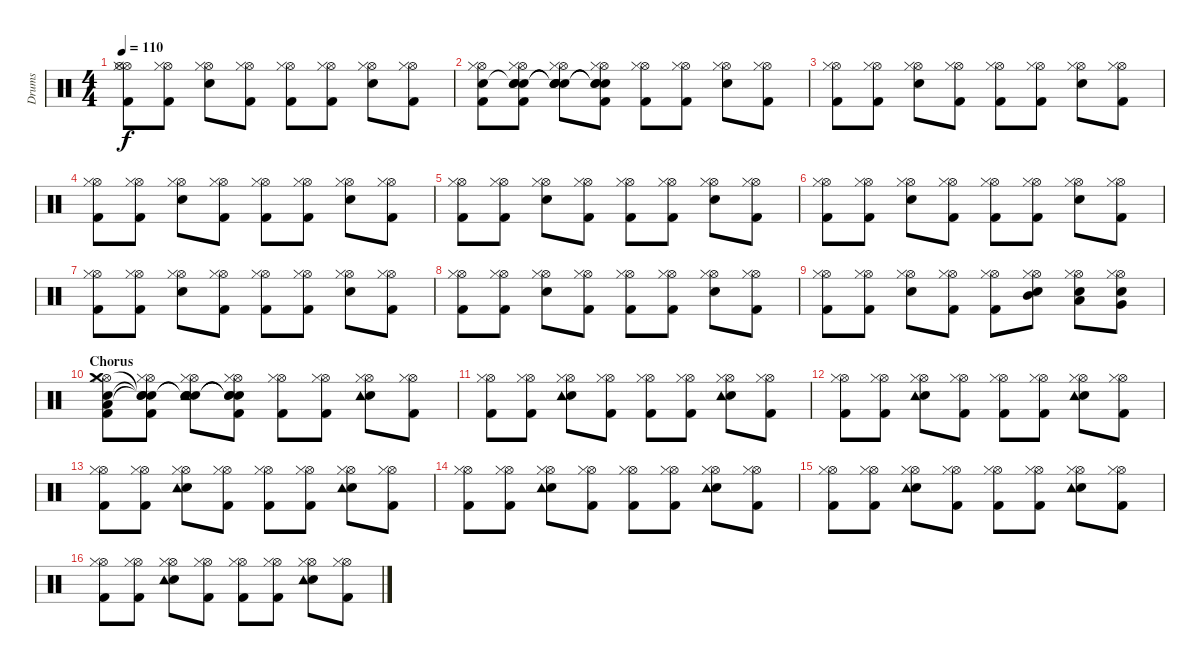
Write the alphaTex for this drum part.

\track ("Drums" "Drums") {instrument percussion}
\staff {score}
\articulation defaults
\ts (4 4)
\tempo 110
\clef neutral
\ks c
("Hi-Hat (open)" "Hi-Hat (closed)" "Kick (hit) 2" "Hi-Hat (open)").8{dy f} ("Hi-Hat (open)" "Hi-Hat (closed)" "Kick (hit) 2").8 ("Hi-Hat (open)" "Hi-Hat (closed)" "Snare (hit) 2").8 ("Hi-Hat (open)" "Hi-Hat (closed)" "Kick (hit) 2").8 ("Hi-Hat (open)" "Hi-Hat (closed)" "Kick (hit) 2").8 ("Hi-Hat (open)" "Hi-Hat (closed)" "Kick (hit) 2").8 ("Hi-Hat (open)" "Hi-Hat (closed)" "Snare (hit) 2").8 ("Hi-Hat (open)" "Hi-Hat (closed)" "Kick (hit) 2").8 |
("Hi-Hat (open)" "Hi-Hat (closed)" "Electric Snare (hit)" "Kick (hit) 2").8 ("Hi-Hat (open)" "Hi-Hat (closed)" "Snare (hit)"{t} "Kick (hit) 2" "Snare (hit)" "Snare (hit)").8 ("Hi-Hat (open)" "Hi-Hat (closed)" "Snare (hit)"{t} "Snare (hit) 2" "Snare (hit)"{t} "Snare (hit)"{t}).8 ("Hi-Hat (open)" "Hi-Hat (closed)" "Snare (hit)"{t} "Kick (hit) 2" "Snare (hit)"{t} "Snare (hit)"{t}).8 ("Hi-Hat (open)" "Hi-Hat (closed)" "Kick (hit) 2").8 ("Hi-Hat (open)" "Hi-Hat (closed)" "Kick (hit) 2").8 ("Hi-Hat (open)" "Hi-Hat (closed)" "Snare (hit) 2").8 ("Hi-Hat (open)" "Hi-Hat (closed)" "Kick (hit) 2").8 |
("Hi-Hat (open)" "Hi-Hat (closed)" "Kick (hit) 2").8 ("Hi-Hat (open)" "Hi-Hat (closed)" "Kick (hit) 2").8 ("Hi-Hat (open)" "Hi-Hat (closed)" "Snare (hit) 2").8 ("Hi-Hat (open)" "Hi-Hat (closed)" "Kick (hit) 2").8 ("Hi-Hat (open)" "Hi-Hat (closed)" "Kick (hit) 2").8 ("Hi-Hat (open)" "Hi-Hat (closed)" "Kick (hit) 2").8 ("Hi-Hat (open)" "Hi-Hat (closed)" "Snare (hit) 2").8 ("Hi-Hat (open)" "Hi-Hat (closed)" "Kick (hit) 2").8 |
("Hi-Hat (open)" "Hi-Hat (closed)" "Kick (hit) 2").8 ("Hi-Hat (open)" "Hi-Hat (closed)" "Kick (hit) 2").8 ("Hi-Hat (open)" "Hi-Hat (closed)" "Snare (hit) 2").8 ("Hi-Hat (open)" "Hi-Hat (closed)" "Kick (hit) 2").8 ("Hi-Hat (open)" "Hi-Hat (closed)" "Kick (hit) 2").8 ("Hi-Hat (open)" "Hi-Hat (closed)" "Kick (hit) 2").8 ("Hi-Hat (open)" "Hi-Hat (closed)" "Snare (hit) 2").8 ("Hi-Hat (open)" "Hi-Hat (closed)" "Kick (hit) 2").8 |
("Hi-Hat (open)" "Hi-Hat (closed)" "Kick (hit) 2").8 ("Hi-Hat (open)" "Hi-Hat (closed)" "Kick (hit) 2").8 ("Hi-Hat (open)" "Hi-Hat (closed)" "Snare (hit) 2").8 ("Hi-Hat (open)" "Hi-Hat (closed)" "Kick (hit) 2").8 ("Hi-Hat (open)" "Hi-Hat (closed)" "Kick (hit) 2").8 ("Hi-Hat (open)" "Hi-Hat (closed)" "Kick (hit) 2").8 ("Hi-Hat (open)" "Hi-Hat (closed)" "Snare (hit) 2").8 ("Hi-Hat (open)" "Hi-Hat (closed)" "Kick (hit) 2").8 |
("Hi-Hat (open)" "Hi-Hat (closed)" "Kick (hit) 2").8 ("Hi-Hat (open)" "Hi-Hat (closed)" "Kick (hit) 2").8 ("Hi-Hat (open)" "Hi-Hat (closed)" "Snare (hit) 2").8 ("Hi-Hat (open)" "Hi-Hat (closed)" "Kick (hit) 2").8 ("Hi-Hat (open)" "Hi-Hat (closed)" "Kick (hit) 2").8 ("Hi-Hat (open)" "Hi-Hat (closed)" "Kick (hit) 2").8 ("Hi-Hat (open)" "Hi-Hat (closed)" "Snare (hit) 2").8 ("Hi-Hat (open)" "Hi-Hat (closed)" "Kick (hit) 2").8 |
("Hi-Hat (open)" "Hi-Hat (closed)" "Kick (hit) 2").8 ("Hi-Hat (open)" "Hi-Hat (closed)" "Kick (hit) 2").8 ("Hi-Hat (open)" "Hi-Hat (closed)" "Snare (hit) 2").8 ("Hi-Hat (open)" "Hi-Hat (closed)" "Kick (hit) 2").8 ("Hi-Hat (open)" "Hi-Hat (closed)" "Kick (hit) 2").8 ("Hi-Hat (open)" "Hi-Hat (closed)" "Kick (hit) 2").8 ("Hi-Hat (open)" "Hi-Hat (closed)" "Snare (hit) 2").8 ("Hi-Hat (open)" "Hi-Hat (closed)" "Kick (hit) 2").8 |
("Hi-Hat (open)" "Hi-Hat (closed)" "Kick (hit) 2").8 ("Hi-Hat (open)" "Hi-Hat (closed)" "Kick (hit) 2").8 ("Hi-Hat (open)" "Hi-Hat (closed)" "Snare (hit) 2").8 ("Hi-Hat (open)" "Hi-Hat (closed)" "Kick (hit) 2").8 ("Hi-Hat (open)" "Hi-Hat (closed)" "Kick (hit) 2").8 ("Hi-Hat (open)" "Hi-Hat (closed)" "Kick (hit) 2").8 ("Hi-Hat (open)" "Hi-Hat (closed)" "Snare (hit) 2").8 ("Hi-Hat (open)" "Hi-Hat (closed)" "Kick (hit) 2").8 |
("Hi-Hat (open)" "Hi-Hat (closed)" "Kick (hit) 2").8 ("Hi-Hat (open)" "Hi-Hat (closed)" "Kick (hit) 2").8 ("Hi-Hat (open)" "Hi-Hat (closed)" "Snare (hit) 2").8 ("Hi-Hat (open)" "Hi-Hat (closed)" "Kick (hit) 2").8 ("Hi-Hat (open)" "Hi-Hat (closed)" "Kick (hit) 2").8 ("Hi-Hat (open)" "Hi-Hat (closed)" "Snare (hit) 2" "Mid Tom (hit)").8 ("Hi-Hat (open)" "Hi-Hat (closed)" "Snare (hit) 2" "Low Tom (hit)").8 ("Hi-Hat (open)" "Hi-Hat (closed)" "Snare (hit) 2" "Very Low Tom (hit)").8 |
\section ("" "Chorus")
("Hi-Hat (open)" "Hi-Hat (closed)" "Electric Snare (hit)" "Kick (hit) 2" "Low Floor Tom (hit)" "Crash medium (hit)").8 ("Hi-Hat (open)" "Hi-Hat (closed)" "Snare (hit)"{t} "Kick (hit) 2" "Snare (hit)"{t} "Snare (hit)"{t}).8 ("Hi-Hat (open)" "Hi-Hat (closed)" "Snare (hit)"{t} "Snare (hit) 2" "Snare (hit)"{t} "Tambourine (hit)").8 ("Hi-Hat (open)" "Hi-Hat (closed)" "Snare (hit)"{t} "Kick (hit) 2" "Snare (hit)"{t} "Snare (hit)"{t}).8 ("Hi-Hat (open)" "Hi-Hat (closed)" "Kick (hit) 2").8 ("Hi-Hat (open)" "Hi-Hat (closed)" "Kick (hit) 2").8 ("Hi-Hat (open)" "Hi-Hat (closed)" "Snare (hit) 2" "Tambourine (hit)").8 ("Hi-Hat (open)" "Hi-Hat (closed)" "Kick (hit) 2").8 |
("Hi-Hat (open)" "Hi-Hat (closed)" "Kick (hit) 2").8 ("Hi-Hat (open)" "Hi-Hat (closed)" "Kick (hit) 2").8 ("Hi-Hat (open)" "Hi-Hat (closed)" "Snare (hit) 2" "Tambourine (hit)").8 ("Hi-Hat (open)" "Hi-Hat (closed)" "Kick (hit) 2").8 ("Hi-Hat (open)" "Hi-Hat (closed)" "Kick (hit) 2").8 ("Hi-Hat (open)" "Hi-Hat (closed)" "Kick (hit) 2").8 ("Hi-Hat (open)" "Hi-Hat (closed)" "Snare (hit) 2" "Tambourine (hit)").8 ("Hi-Hat (open)" "Hi-Hat (closed)" "Kick (hit) 2").8 |
("Hi-Hat (open)" "Hi-Hat (closed)" "Kick (hit) 2").8 ("Hi-Hat (open)" "Hi-Hat (closed)" "Kick (hit) 2").8 ("Hi-Hat (open)" "Hi-Hat (closed)" "Snare (hit) 2" "Tambourine (hit)").8 ("Hi-Hat (open)" "Hi-Hat (closed)" "Kick (hit) 2").8 ("Hi-Hat (open)" "Hi-Hat (closed)" "Kick (hit) 2").8 ("Hi-Hat (open)" "Hi-Hat (closed)" "Kick (hit) 2").8 ("Hi-Hat (open)" "Hi-Hat (closed)" "Snare (hit) 2" "Tambourine (hit)").8 ("Hi-Hat (open)" "Hi-Hat (closed)" "Kick (hit) 2").8 |
("Hi-Hat (open)" "Hi-Hat (closed)" "Kick (hit) 2").8 ("Hi-Hat (open)" "Hi-Hat (closed)" "Kick (hit) 2").8 ("Hi-Hat (open)" "Hi-Hat (closed)" "Snare (hit) 2" "Tambourine (hit)").8 ("Hi-Hat (open)" "Hi-Hat (closed)" "Kick (hit) 2").8 ("Hi-Hat (open)" "Hi-Hat (closed)" "Kick (hit) 2").8 ("Hi-Hat (open)" "Hi-Hat (closed)" "Kick (hit) 2").8 ("Hi-Hat (open)" "Hi-Hat (closed)" "Snare (hit) 2" "Tambourine (hit)").8 ("Hi-Hat (open)" "Hi-Hat (closed)" "Kick (hit) 2").8 |
("Hi-Hat (open)" "Hi-Hat (closed)" "Kick (hit) 2").8 ("Hi-Hat (open)" "Hi-Hat (closed)" "Kick (hit) 2").8 ("Hi-Hat (open)" "Hi-Hat (closed)" "Snare (hit) 2" "Tambourine (hit)").8 ("Hi-Hat (open)" "Hi-Hat (closed)" "Kick (hit) 2").8 ("Hi-Hat (open)" "Hi-Hat (closed)" "Kick (hit) 2").8 ("Hi-Hat (open)" "Hi-Hat (closed)" "Kick (hit) 2").8 ("Hi-Hat (open)" "Hi-Hat (closed)" "Snare (hit) 2" "Tambourine (hit)").8 ("Hi-Hat (open)" "Hi-Hat (closed)" "Kick (hit) 2").8 |
("Hi-Hat (open)" "Hi-Hat (closed)" "Kick (hit) 2").8 ("Hi-Hat (open)" "Hi-Hat (closed)" "Kick (hit) 2").8 ("Hi-Hat (open)" "Hi-Hat (closed)" "Snare (hit) 2" "Tambourine (hit)").8 ("Hi-Hat (open)" "Hi-Hat (closed)" "Kick (hit) 2").8 ("Hi-Hat (open)" "Hi-Hat (closed)" "Kick (hit) 2").8 ("Hi-Hat (open)" "Hi-Hat (closed)" "Kick (hit) 2").8 ("Hi-Hat (open)" "Hi-Hat (closed)" "Snare (hit) 2" "Tambourine (hit)").8 ("Hi-Hat (open)" "Hi-Hat (closed)" "Kick (hit) 2").8 |
("Hi-Hat (open)" "Hi-Hat (closed)" "Kick (hit) 2").8 ("Hi-Hat (open)" "Hi-Hat (closed)" "Kick (hit) 2").8 ("Hi-Hat (open)" "Hi-Hat (closed)" "Snare (hit) 2" "Tambourine (hit)").8 ("Hi-Hat (open)" "Hi-Hat (closed)" "Kick (hit) 2").8 ("Hi-Hat (open)" "Hi-Hat (closed)" "Kick (hit) 2").8 ("Hi-Hat (open)" "Hi-Hat (closed)" "Kick (hit) 2").8 ("Hi-Hat (open)" "Hi-Hat (closed)" "Snare (hit) 2" "Tambourine (hit)").8 ("Hi-Hat (open)" "Hi-Hat (closed)" "Kick (hit) 2").8
